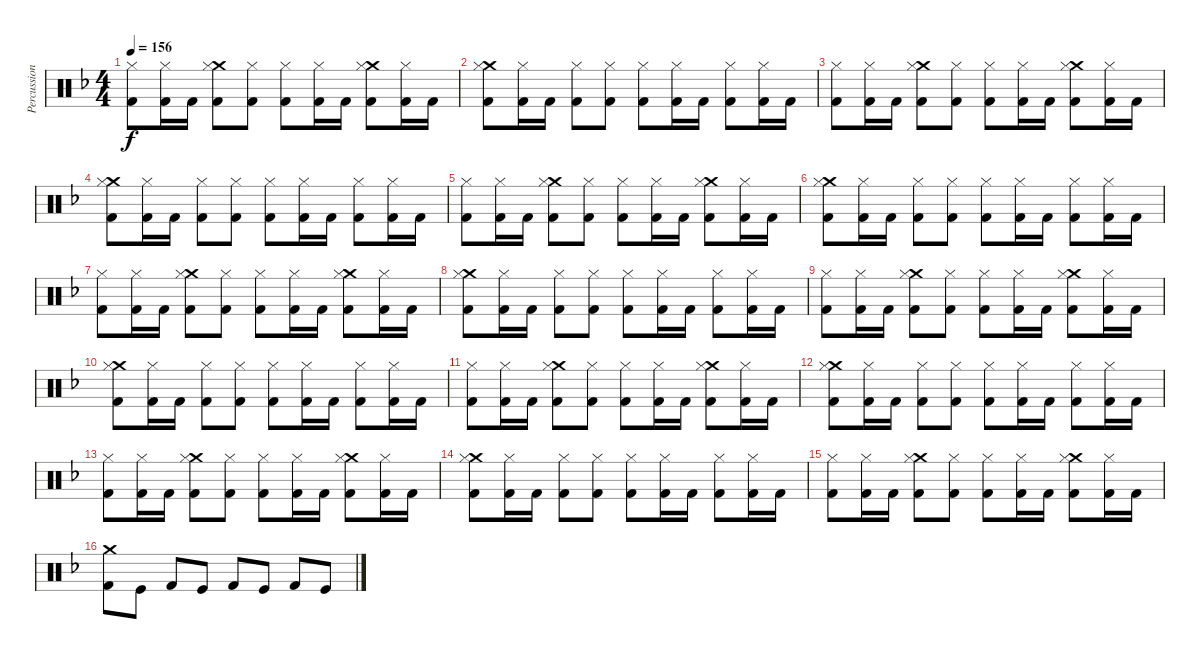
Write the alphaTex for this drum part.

\track ("Percussion" "Percussion") {instrument percussion}
\staff {score}
\articulation defaults
\ts (4 4)
\tempo 156
\clef neutral
\ks f
("Kick (hit) 2" "Hi-Hat (closed)").8{dy f} ("Kick (hit) 2" "Hi-Hat (closed)").16 "Kick (hit) 2".16 ("Crash medium (hit)" "Kick (hit) 2" "Hi-Hat (closed)").8 ("Kick (hit) 2" "Hi-Hat (closed)").8 ("Kick (hit) 2" "Hi-Hat (closed)").8 ("Kick (hit) 2" "Hi-Hat (closed)").16 "Kick (hit) 2".16 ("Crash medium (hit)" "Kick (hit) 2" "Hi-Hat (closed)").8 ("Kick (hit) 2" "Hi-Hat (closed)").16 "Kick (hit) 2".16 |
("Crash medium (hit)" "Kick (hit) 2" "Hi-Hat (closed)").8 ("Kick (hit) 2" "Hi-Hat (closed)").16 "Kick (hit) 2".16 ("Kick (hit) 2" "Hi-Hat (closed)").8 ("Kick (hit) 2" "Hi-Hat (closed)").8 ("Kick (hit) 2" "Hi-Hat (closed)").8 ("Kick (hit) 2" "Hi-Hat (closed)").16 "Kick (hit) 2".16 ("Kick (hit) 2" "Hi-Hat (closed)").8 ("Kick (hit) 2" "Hi-Hat (closed)").16 "Kick (hit) 2".16 |
("Kick (hit) 2" "Hi-Hat (closed)").8 ("Kick (hit) 2" "Hi-Hat (closed)").16 "Kick (hit) 2".16 ("Crash medium (hit)" "Kick (hit) 2" "Hi-Hat (closed)").8 ("Kick (hit) 2" "Hi-Hat (closed)").8 ("Kick (hit) 2" "Hi-Hat (closed)").8 ("Kick (hit) 2" "Hi-Hat (closed)").16 "Kick (hit) 2".16 ("Crash medium (hit)" "Kick (hit) 2" "Hi-Hat (closed)").8 ("Kick (hit) 2" "Hi-Hat (closed)").16 "Kick (hit) 2".16 |
("Crash medium (hit)" "Kick (hit) 2" "Hi-Hat (closed)").8 ("Kick (hit) 2" "Hi-Hat (closed)").16 "Kick (hit) 2".16 ("Kick (hit) 2" "Hi-Hat (closed)").8 ("Kick (hit) 2" "Hi-Hat (closed)").8 ("Kick (hit) 2" "Hi-Hat (closed)").8 ("Kick (hit) 2" "Hi-Hat (closed)").16 "Kick (hit) 2".16 ("Kick (hit) 2" "Hi-Hat (closed)").8 ("Kick (hit) 2" "Hi-Hat (closed)").16 "Kick (hit) 2".16 |
("Kick (hit) 2" "Hi-Hat (closed)").8 ("Kick (hit) 2" "Hi-Hat (closed)").16 "Kick (hit) 2".16 ("Crash medium (hit)" "Kick (hit) 2" "Hi-Hat (closed)").8 ("Kick (hit) 2" "Hi-Hat (closed)").8 ("Kick (hit) 2" "Hi-Hat (closed)").8 ("Kick (hit) 2" "Hi-Hat (closed)").16 "Kick (hit) 2".16 ("Crash medium (hit)" "Kick (hit) 2" "Hi-Hat (closed)").8 ("Kick (hit) 2" "Hi-Hat (closed)").16 "Kick (hit) 2".16 |
("Crash medium (hit)" "Kick (hit) 2" "Hi-Hat (closed)").8 ("Kick (hit) 2" "Hi-Hat (closed)").16 "Kick (hit) 2".16 ("Kick (hit) 2" "Hi-Hat (closed)").8 ("Kick (hit) 2" "Hi-Hat (closed)").8 ("Kick (hit) 2" "Hi-Hat (closed)").8 ("Kick (hit) 2" "Hi-Hat (closed)").16 "Kick (hit) 2".16 ("Kick (hit) 2" "Hi-Hat (closed)").8 ("Kick (hit) 2" "Hi-Hat (closed)").16 "Kick (hit) 2".16 |
("Kick (hit) 2" "Hi-Hat (closed)").8 ("Kick (hit) 2" "Hi-Hat (closed)").16 "Kick (hit) 2".16 ("Crash medium (hit)" "Kick (hit) 2" "Hi-Hat (closed)").8 ("Kick (hit) 2" "Hi-Hat (closed)").8 ("Kick (hit) 2" "Hi-Hat (closed)").8 ("Kick (hit) 2" "Hi-Hat (closed)").16 "Kick (hit) 2".16 ("Crash medium (hit)" "Kick (hit) 2" "Hi-Hat (closed)").8 ("Kick (hit) 2" "Hi-Hat (closed)").16 "Kick (hit) 2".16 |
("Crash medium (hit)" "Kick (hit) 2" "Hi-Hat (closed)").8 ("Kick (hit) 2" "Hi-Hat (closed)").16 "Kick (hit) 2".16 ("Kick (hit) 2" "Hi-Hat (closed)").8 ("Kick (hit) 2" "Hi-Hat (closed)").8 ("Kick (hit) 2" "Hi-Hat (closed)").8 ("Kick (hit) 2" "Hi-Hat (closed)").16 "Kick (hit) 2".16 ("Kick (hit) 2" "Hi-Hat (closed)").8 ("Kick (hit) 2" "Hi-Hat (closed)").16 "Kick (hit) 2".16 |
("Kick (hit) 2" "Hi-Hat (closed)").8 ("Kick (hit) 2" "Hi-Hat (closed)").16 "Kick (hit) 2".16 ("Crash medium (hit)" "Kick (hit) 2" "Hi-Hat (closed)").8 ("Kick (hit) 2" "Hi-Hat (closed)").8 ("Kick (hit) 2" "Hi-Hat (closed)").8 ("Kick (hit) 2" "Hi-Hat (closed)").16 "Kick (hit) 2".16 ("Crash medium (hit)" "Kick (hit) 2" "Hi-Hat (closed)").8 ("Kick (hit) 2" "Hi-Hat (closed)").16 "Kick (hit) 2".16 |
("Crash medium (hit)" "Kick (hit) 2" "Hi-Hat (closed)").8 ("Kick (hit) 2" "Hi-Hat (closed)").16 "Kick (hit) 2".16 ("Kick (hit) 2" "Hi-Hat (closed)").8 ("Kick (hit) 2" "Hi-Hat (closed)").8 ("Kick (hit) 2" "Hi-Hat (closed)").8 ("Kick (hit) 2" "Hi-Hat (closed)").16 "Kick (hit) 2".16 ("Kick (hit) 2" "Hi-Hat (closed)").8 ("Kick (hit) 2" "Hi-Hat (closed)").16 "Kick (hit) 2".16 |
("Kick (hit) 2" "Hi-Hat (closed)").8 ("Kick (hit) 2" "Hi-Hat (closed)").16 "Kick (hit) 2".16 ("Crash medium (hit)" "Kick (hit) 2" "Hi-Hat (closed)").8 ("Kick (hit) 2" "Hi-Hat (closed)").8 ("Kick (hit) 2" "Hi-Hat (closed)").8 ("Kick (hit) 2" "Hi-Hat (closed)").16 "Kick (hit) 2".16 ("Crash medium (hit)" "Kick (hit) 2" "Hi-Hat (closed)").8 ("Kick (hit) 2" "Hi-Hat (closed)").16 "Kick (hit) 2".16 |
("Crash medium (hit)" "Kick (hit) 2" "Hi-Hat (closed)").8 ("Kick (hit) 2" "Hi-Hat (closed)").16 "Kick (hit) 2".16 ("Kick (hit) 2" "Hi-Hat (closed)").8 ("Kick (hit) 2" "Hi-Hat (closed)").8 ("Kick (hit) 2" "Hi-Hat (closed)").8 ("Kick (hit) 2" "Hi-Hat (closed)").16 "Kick (hit) 2".16 ("Kick (hit) 2" "Hi-Hat (closed)").8 ("Kick (hit) 2" "Hi-Hat (closed)").16 "Kick (hit) 2".16 |
("Kick (hit) 2" "Hi-Hat (closed)").8 ("Kick (hit) 2" "Hi-Hat (closed)").16 "Kick (hit) 2".16 ("Crash medium (hit)" "Kick (hit) 2" "Hi-Hat (closed)").8 ("Kick (hit) 2" "Hi-Hat (closed)").8 ("Kick (hit) 2" "Hi-Hat (closed)").8 ("Kick (hit) 2" "Hi-Hat (closed)").16 "Kick (hit) 2".16 ("Crash medium (hit)" "Kick (hit) 2" "Hi-Hat (closed)").8 ("Kick (hit) 2" "Hi-Hat (closed)").16 "Kick (hit) 2".16 |
("Crash medium (hit)" "Kick (hit) 2" "Hi-Hat (closed)").8 ("Kick (hit) 2" "Hi-Hat (closed)").16 "Kick (hit) 2".16 ("Kick (hit) 2" "Hi-Hat (closed)").8 ("Kick (hit) 2" "Hi-Hat (closed)").8 ("Kick (hit) 2" "Hi-Hat (closed)").8 ("Kick (hit) 2" "Hi-Hat (closed)").16 "Kick (hit) 2".16 ("Kick (hit) 2" "Hi-Hat (closed)").8 ("Kick (hit) 2" "Hi-Hat (closed)").16 "Kick (hit) 2".16 |
("Kick (hit) 2" "Hi-Hat (closed)").8 ("Kick (hit) 2" "Hi-Hat (closed)").16 "Kick (hit) 2".16 ("Crash medium (hit)" "Kick (hit) 2" "Hi-Hat (closed)").8 ("Kick (hit) 2" "Hi-Hat (closed)").8 ("Kick (hit) 2" "Hi-Hat (closed)").8 ("Kick (hit) 2" "Hi-Hat (closed)").16 "Kick (hit) 2".16 ("Crash medium (hit)" "Kick (hit) 2" "Hi-Hat (closed)").8 ("Kick (hit) 2" "Hi-Hat (closed)").16 "Kick (hit) 2".16 |
("Crash medium (hit)" "Kick (hit) 2").8 "Kick (hit)".8 "Kick (hit) 2".8 "Kick (hit)".8 "Kick (hit) 2".8 "Kick (hit)".8 "Kick (hit) 2".8 "Kick (hit)".8
